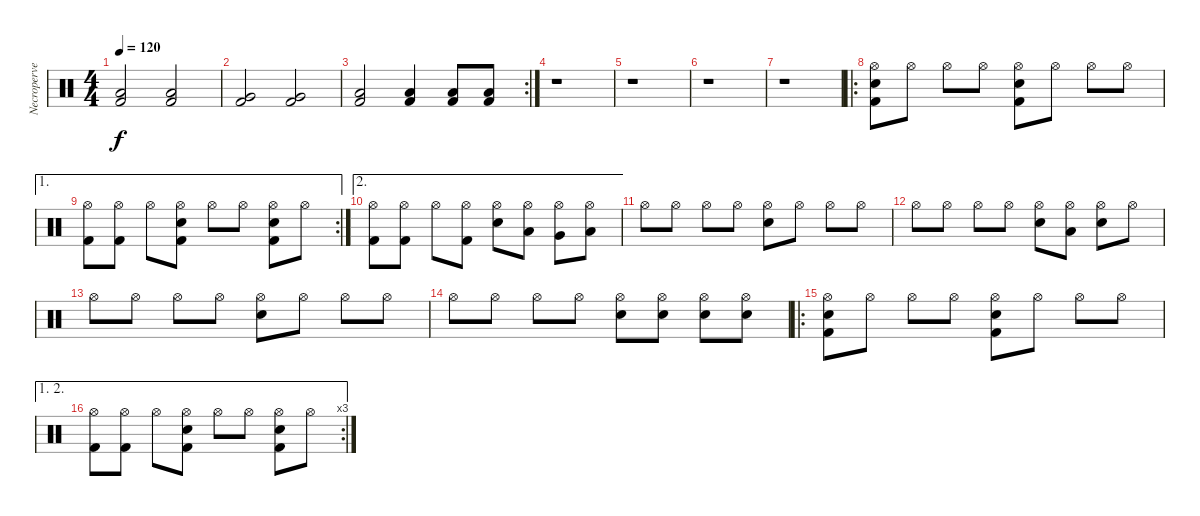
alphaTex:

\track ("Necroperversor" "Necroperve") {instrument percussion}
\staff {score}
\articulation defaults
\ts (4 4)
\tempo 120
\clef neutral
\ks c
("Low Floor Tom (hit)" "Kick (hit) 2").2{dy f} ("Low Floor Tom (hit)" "Kick (hit) 2").2 |
("Very Low Tom (hit)" "Kick (hit) 2").2 ("Very Low Tom (hit)" "Kick (hit) 2").2 |
\rc 2
("Low Floor Tom (hit)" "Kick (hit) 2").2 ("Low Floor Tom (hit)" "Kick (hit) 2").4 ("Low Floor Tom (hit)" "Kick (hit) 2").8 ("Low Floor Tom (hit)" "Kick (hit) 2").8 |
r.1 |
r.1 |
r.1 |
r.1 |
\ro
("Hi-Hat (open)" "Electric Snare (hit)" "Kick (hit) 2").8 "Hi-Hat (open)".8 "Hi-Hat (open)".8 "Hi-Hat (open)".8 ("Hi-Hat (open)" "Electric Snare (hit)" "Kick (hit) 2").8 "Hi-Hat (open)".8 "Hi-Hat (open)".8 "Hi-Hat (open)".8 |
\ae 1
\rc 2
("Hi-Hat (open)" "Kick (hit) 2").8 ("Hi-Hat (open)" "Kick (hit) 2").8 "Hi-Hat (open)".8 ("Hi-Hat (open)" "Electric Snare (hit)" "Kick (hit) 2").8 "Hi-Hat (open)".8 "Hi-Hat (open)".8 ("Hi-Hat (open)" "Electric Snare (hit)" "Kick (hit) 2").8 "Hi-Hat (open)".8 |
\ae 2
("Hi-Hat (open)" "Kick (hit) 2").8 ("Hi-Hat (open)" "Kick (hit) 2").8 "Hi-Hat (open)".8 ("Hi-Hat (open)" "Kick (hit) 2").8 ("Hi-Hat (open)" "Electric Snare (hit)").8 ("Hi-Hat (open)" "Low Tom (hit)").8 ("Hi-Hat (open)" "Very Low Tom (hit)").8 ("Hi-Hat (open)" "Low Floor Tom (hit)").8 |
"Hi-Hat (open)".8 "Hi-Hat (open)".8 "Hi-Hat (open)".8 "Hi-Hat (open)".8 ("Hi-Hat (open)" "Electric Snare (hit)").8 "Hi-Hat (open)".8 "Hi-Hat (open)".8 "Hi-Hat (open)".8 |
"Hi-Hat (open)".8 "Hi-Hat (open)".8 "Hi-Hat (open)".8 "Hi-Hat (open)".8 ("Hi-Hat (open)" "Electric Snare (hit)").8 ("Hi-Hat (open)" "Low Tom (hit)").8 ("Hi-Hat (open)" "Electric Snare (hit)").8 "Hi-Hat (open)".8 |
"Hi-Hat (open)".8 "Hi-Hat (open)".8 "Hi-Hat (open)".8 "Hi-Hat (open)".8 ("Hi-Hat (open)" "Electric Snare (hit)").8 "Hi-Hat (open)".8 "Hi-Hat (open)".8 "Hi-Hat (open)".8 |
"Hi-Hat (open)".8 "Hi-Hat (open)".8 "Hi-Hat (open)".8 "Hi-Hat (open)".8 ("Hi-Hat (open)" "Electric Snare (hit)").8 ("Hi-Hat (open)" "Electric Snare (hit)").8 ("Hi-Hat (open)" "Electric Snare (hit)").8 ("Hi-Hat (open)" "Electric Snare (hit)").8 |
\ro
("Hi-Hat (open)" "Electric Snare (hit)" "Kick (hit) 2").8 "Hi-Hat (open)".8 "Hi-Hat (open)".8 "Hi-Hat (open)".8 ("Hi-Hat (open)" "Electric Snare (hit)" "Kick (hit) 2").8 "Hi-Hat (open)".8 "Hi-Hat (open)".8 "Hi-Hat (open)".8 |
\ae (1 2)
\rc 3
("Hi-Hat (open)" "Kick (hit) 2").8 ("Hi-Hat (open)" "Kick (hit) 2").8 "Hi-Hat (open)".8 ("Hi-Hat (open)" "Electric Snare (hit)" "Kick (hit) 2").8 "Hi-Hat (open)".8 "Hi-Hat (open)".8 ("Hi-Hat (open)" "Electric Snare (hit)" "Kick (hit) 2").8 "Hi-Hat (open)".8
